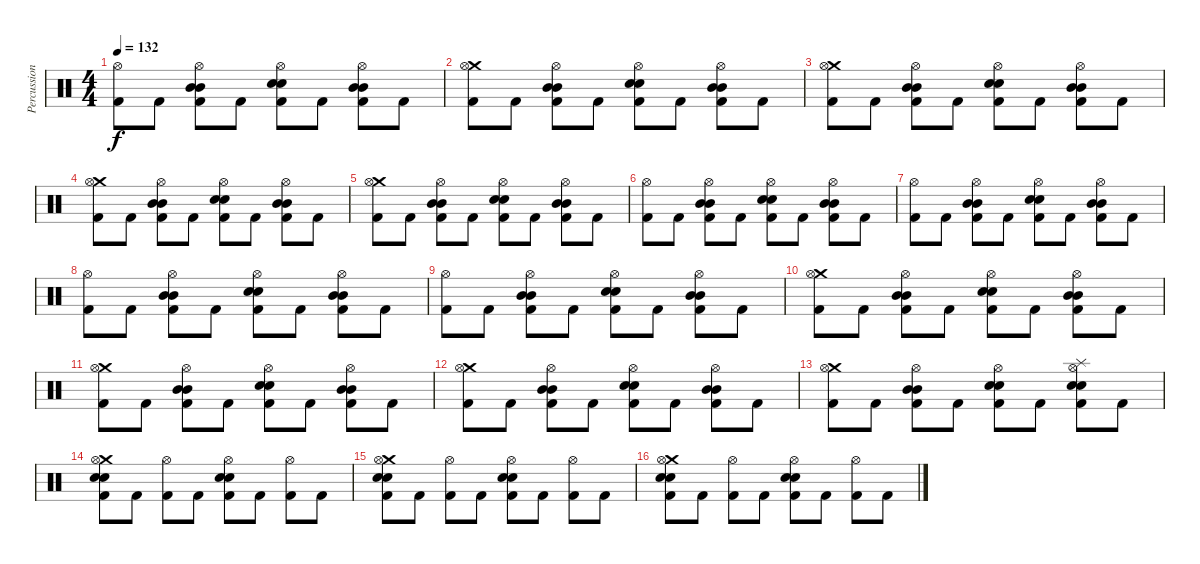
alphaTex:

\track ("Percussion" "Percussion") {instrument percussion}
\staff {score}
\articulation defaults
\ts (4 4)
\tempo 132
\clef neutral
\ks c
("Hi-Hat (open)" "Kick (hit) 2").8{dy f} "Kick (hit) 2".8 ("Hi-Hat (open)" "Mid Tom (hit)" "Mid Tom (hit)" "Kick (hit) 2").8 "Kick (hit) 2".8 ("Hi-Hat (open)" "Snare (hit) 2" "Snare (hit) 2" "Kick (hit) 2").8 "Kick (hit) 2".8 ("Hi-Hat (open)" "Mid Tom (hit)" "Mid Tom (hit)" "Kick (hit) 2").8 "Kick (hit) 2".8 |
("Crash medium (hit)" "Hi-Hat (open)" "Kick (hit) 2").8 "Kick (hit) 2".8 ("Hi-Hat (open)" "Mid Tom (hit)" "Mid Tom (hit)" "Kick (hit) 2").8 "Kick (hit) 2".8 ("Hi-Hat (open)" "Snare (hit) 2" "Snare (hit) 2" "Kick (hit) 2").8 "Kick (hit) 2".8 ("Hi-Hat (open)" "Mid Tom (hit)" "Mid Tom (hit)" "Kick (hit) 2").8 "Kick (hit) 2".8 |
("Crash medium (hit)" "Hi-Hat (open)" "Kick (hit) 2").8 "Kick (hit) 2".8 ("Hi-Hat (open)" "Mid Tom (hit)" "Mid Tom (hit)" "Kick (hit) 2").8 "Kick (hit) 2".8 ("Hi-Hat (open)" "Snare (hit) 2" "Snare (hit) 2" "Kick (hit) 2").8 "Kick (hit) 2".8 ("Hi-Hat (open)" "Mid Tom (hit)" "Mid Tom (hit)" "Kick (hit) 2").8 "Kick (hit) 2".8 |
("Crash medium (hit)" "Hi-Hat (open)" "Kick (hit) 2").8 "Kick (hit) 2".8 ("Hi-Hat (open)" "Mid Tom (hit)" "Mid Tom (hit)" "Kick (hit) 2").8 "Kick (hit) 2".8 ("Hi-Hat (open)" "Snare (hit) 2" "Snare (hit) 2" "Kick (hit) 2").8 "Kick (hit) 2".8 ("Hi-Hat (open)" "Mid Tom (hit)" "Mid Tom (hit)" "Kick (hit) 2").8 "Kick (hit) 2".8 |
("Crash medium (hit)" "Hi-Hat (open)" "Kick (hit) 2").8 "Kick (hit) 2".8 ("Hi-Hat (open)" "Mid Tom (hit)" "Mid Tom (hit)" "Kick (hit) 2").8 "Kick (hit) 2".8 ("Hi-Hat (open)" "Snare (hit) 2" "Snare (hit) 2" "Kick (hit) 2").8 "Kick (hit) 2".8 ("Hi-Hat (open)" "Mid Tom (hit)" "Mid Tom (hit)" "Kick (hit) 2").8 "Kick (hit) 2".8 |
("Hi-Hat (open)" "Kick (hit) 2").8 "Kick (hit) 2".8 ("Hi-Hat (open)" "Mid Tom (hit)" "Mid Tom (hit)" "Kick (hit) 2").8 "Kick (hit) 2".8 ("Hi-Hat (open)" "Snare (hit) 2" "Snare (hit) 2" "Kick (hit) 2").8 "Kick (hit) 2".8 ("Hi-Hat (open)" "Mid Tom (hit)" "Mid Tom (hit)" "Kick (hit) 2").8 "Kick (hit) 2".8 |
("Hi-Hat (open)" "Kick (hit) 2").8 "Kick (hit) 2".8 ("Hi-Hat (open)" "Mid Tom (hit)" "Mid Tom (hit)" "Kick (hit) 2").8 "Kick (hit) 2".8 ("Hi-Hat (open)" "Snare (hit) 2" "Snare (hit) 2" "Kick (hit) 2").8 "Kick (hit) 2".8 ("Hi-Hat (open)" "Mid Tom (hit)" "Mid Tom (hit)" "Kick (hit) 2").8 "Kick (hit) 2".8 |
("Hi-Hat (open)" "Kick (hit) 2").8 "Kick (hit) 2".8 ("Hi-Hat (open)" "Mid Tom (hit)" "Mid Tom (hit)" "Kick (hit) 2").8 "Kick (hit) 2".8 ("Hi-Hat (open)" "Snare (hit) 2" "Snare (hit) 2" "Kick (hit) 2").8 "Kick (hit) 2".8 ("Hi-Hat (open)" "Mid Tom (hit)" "Mid Tom (hit)" "Kick (hit) 2").8 "Kick (hit) 2".8 |
("Hi-Hat (open)" "Kick (hit) 2").8 "Kick (hit) 2".8 ("Hi-Hat (open)" "Mid Tom (hit)" "Mid Tom (hit)" "Kick (hit) 2").8 "Kick (hit) 2".8 ("Hi-Hat (open)" "Snare (hit) 2" "Snare (hit) 2" "Kick (hit) 2").8 "Kick (hit) 2".8 ("Hi-Hat (open)" "Mid Tom (hit)" "Mid Tom (hit)" "Kick (hit) 2").8 "Kick (hit) 2".8 |
("Crash medium (hit)" "Hi-Hat (open)" "Kick (hit) 2").8 "Kick (hit) 2".8 ("Hi-Hat (open)" "Mid Tom (hit)" "Mid Tom (hit)" "Kick (hit) 2").8 "Kick (hit) 2".8 ("Hi-Hat (open)" "Snare (hit) 2" "Snare (hit) 2" "Kick (hit) 2").8 "Kick (hit) 2".8 ("Hi-Hat (open)" "Mid Tom (hit)" "Mid Tom (hit)" "Kick (hit) 2").8 "Kick (hit) 2".8 |
("Crash medium (hit)" "Hi-Hat (open)" "Kick (hit) 2").8 "Kick (hit) 2".8 ("Hi-Hat (open)" "Mid Tom (hit)" "Mid Tom (hit)" "Kick (hit) 2").8 "Kick (hit) 2".8 ("Hi-Hat (open)" "Snare (hit) 2" "Snare (hit) 2" "Kick (hit) 2").8 "Kick (hit) 2".8 ("Hi-Hat (open)" "Mid Tom (hit)" "Mid Tom (hit)" "Kick (hit) 2").8 "Kick (hit) 2".8 |
("Crash medium (hit)" "Hi-Hat (open)" "Kick (hit) 2").8 "Kick (hit) 2".8 ("Hi-Hat (open)" "Mid Tom (hit)" "Mid Tom (hit)" "Kick (hit) 2").8 "Kick (hit) 2".8 ("Hi-Hat (open)" "Snare (hit) 2" "Snare (hit) 2" "Kick (hit) 2").8 "Kick (hit) 2".8 ("Hi-Hat (open)" "Mid Tom (hit)" "Mid Tom (hit)" "Kick (hit) 2").8 "Kick (hit) 2".8 |
("Crash medium (hit)" "Hi-Hat (open)" "Kick (hit) 2").8 "Kick (hit) 2".8 ("Hi-Hat (open)" "Mid Tom (hit)" "Mid Tom (hit)" "Kick (hit) 2").8 "Kick (hit) 2".8 ("Hi-Hat (open)" "Snare (hit) 2" "Snare (hit) 2" "Kick (hit) 2").8 "Kick (hit) 2".8 ("Splash (hit)" "Hi-Hat (open)" "Electric Snare (hit)" "Snare (hit) 2" "Kick (hit) 2").8 "Kick (hit) 2".8 |
("Crash medium (hit)" "Hi-Hat (open)" "Snare (hit) 2" "Snare (hit) 2" "Kick (hit) 2").8 "Kick (hit) 2".8 ("Hi-Hat (open)" "Kick (hit) 2").8 "Kick (hit) 2".8 ("Hi-Hat (open)" "Snare (hit) 2" "Snare (hit) 2" "Kick (hit) 2").8 "Kick (hit) 2".8 ("Hi-Hat (open)" "Kick (hit) 2").8 "Kick (hit) 2".8 |
("Crash medium (hit)" "Hi-Hat (open)" "Snare (hit) 2" "Snare (hit) 2" "Kick (hit) 2").8 "Kick (hit) 2".8 ("Hi-Hat (open)" "Kick (hit) 2").8 "Kick (hit) 2".8 ("Hi-Hat (open)" "Snare (hit) 2" "Snare (hit) 2" "Kick (hit) 2").8 "Kick (hit) 2".8 ("Hi-Hat (open)" "Kick (hit) 2").8 "Kick (hit) 2".8 |
("Crash medium (hit)" "Hi-Hat (open)" "Snare (hit) 2" "Snare (hit) 2" "Kick (hit) 2").8 "Kick (hit) 2".8 ("Hi-Hat (open)" "Kick (hit) 2").8 "Kick (hit) 2".8 ("Hi-Hat (open)" "Snare (hit) 2" "Snare (hit) 2" "Kick (hit) 2").8 "Kick (hit) 2".8 ("Hi-Hat (open)" "Kick (hit) 2").8 "Kick (hit) 2".8
